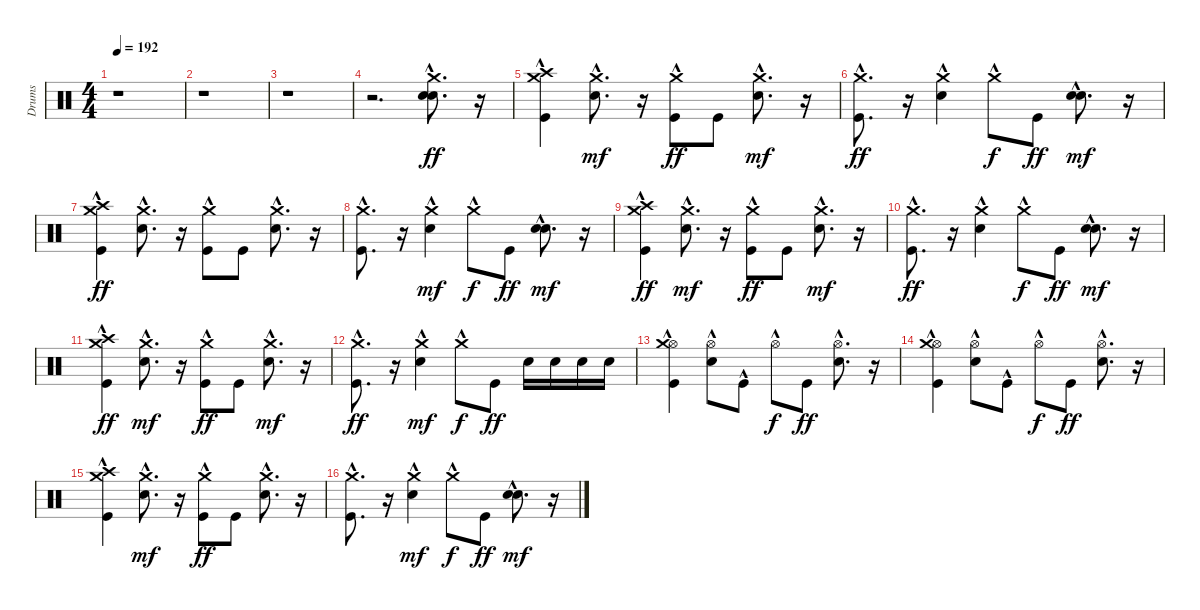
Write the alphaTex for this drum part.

\track ("Drums" "Drums") {instrument percussion}
\staff {score}
\articulation defaults
\ts (4 4)
\tempo 192
\clef neutral
\ks c
r.1{dy ff} |
r.1 |
r.1 |
r.2{d} ("Crash medium (hit)"{hac} "Snare (hit) 2"{hac} "Electric Snare (hit)"{hac}).8{d} r.16 |
("Crash medium (hit)"{hac} "Kick (hit)"{hac} "Crash high (hit)"{hac}).4 ("Electric Snare (hit)"{hac} "Crash medium (hit)"{hac}).8{d dy mf} r.16 ("Kick (hit)" "Crash medium (hit)"{hac}).8{dy ff} "Kick (hit)".8 ("Electric Snare (hit)"{hac} "Crash medium (hit)"{hac}).8{d dy mf} r.16 |
("Crash medium (hit)"{hac} "Kick (hit)"{hac}).8{d dy ff} r.16 ("Crash medium (hit)"{hac} "Electric Snare (hit)").4 "Crash medium (hit)"{hac}.8{dy f} "Kick (hit)".8{dy ff} ("Electric Snare (hit)"{hac} "Snare (hit) 2"{hac}).8{d dy mf} r.16 |
("Crash medium (hit)"{hac} "Kick (hit)"{hac} "Crash high (hit)"{hac}).4{dy ff} ("Crash medium (hit)"{hac} "Electric Snare (hit)"{hac}).8{d} r.16 ("Crash medium (hit)"{hac} "Kick (hit)").8 "Kick (hit)".8 ("Crash medium (hit)"{hac} "Electric Snare (hit)"{hac}).8{d} r.16 |
("Kick (hit)"{hac} "Crash medium (hit)"{hac}).8{d} r.16 ("Electric Snare (hit)" "Crash medium (hit)"{hac}).4{dy mf} "Crash medium (hit)"{hac}.8{dy f} "Kick (hit)".8{dy ff} ("Electric Snare (hit)"{hac} "Snare (hit) 2"{hac}).8{d dy mf} r.16 |
("Crash medium (hit)"{hac} "Crash high (hit)"{hac} "Kick (hit)"{hac}).4{dy ff} ("Electric Snare (hit)"{hac} "Crash medium (hit)"{hac}).8{d dy mf} r.16 ("Kick (hit)" "Crash medium (hit)"{hac}).8{dy ff} "Kick (hit)".8 ("Electric Snare (hit)"{hac} "Crash medium (hit)"{hac}).8{d dy mf} r.16 |
("Crash medium (hit)"{hac} "Kick (hit)"{hac}).8{d dy ff} r.16 ("Crash medium (hit)"{hac} "Electric Snare (hit)").4 "Crash medium (hit)"{hac}.8{dy f} "Kick (hit)".8{dy ff} ("Electric Snare (hit)"{hac} "Snare (hit) 2"{hac}).8{d dy mf} r.16 |
("Crash medium (hit)"{hac} "Crash high (hit)"{hac} "Kick (hit)"{hac}).4{dy ff} ("Electric Snare (hit)"{hac} "Crash medium (hit)"{hac}).8{d dy mf} r.16 ("Kick (hit)" "Crash medium (hit)"{hac}).8{dy ff} "Kick (hit)".8 ("Electric Snare (hit)"{hac} "Crash medium (hit)"{hac}).8{d dy mf} r.16 |
("Kick (hit)"{hac} "Crash medium (hit)"{hac}).8{d dy ff} r.16 ("Electric Snare (hit)" "Crash medium (hit)"{hac}).4{dy mf} "Crash medium (hit)"{hac}.8{dy f} "Kick (hit)".8{dy ff} "Electric Snare (hit)".16 "Electric Snare (hit)".16 "Electric Snare (hit)".16 "Electric Snare (hit)".16 |
("Kick (hit)"{hac} "Hi-Hat (open)"{hac} "Crash medium (hit)"{hac}).4 ("Hi-Hat (open)"{hac} "Electric Snare (hit)").8 "Kick (hit)"{hac}.8 "Hi-Hat (open)"{hac}.8{dy f} "Kick (hit)".8{dy ff} ("Hi-Hat (open)"{hac} "Electric Snare (hit)"{hac}).8{d} r.16 |
("Kick (hit)"{hac} "Hi-Hat (open)"{hac} "Crash medium (hit)"{hac}).4 ("Hi-Hat (open)"{hac} "Electric Snare (hit)").8 "Kick (hit)"{hac}.8 "Hi-Hat (open)"{hac}.8{dy f} "Kick (hit)".8{dy ff} ("Electric Snare (hit)"{hac} "Hi-Hat (open)"{hac}).8{d} r.16 |
("Kick (hit)"{hac} "Crash high (hit)"{hac} "Crash medium (hit)"{hac}).4 ("Electric Snare (hit)"{hac} "Crash medium (hit)"{hac}).8{d dy mf} r.16 ("Kick (hit)" "Crash medium (hit)"{hac}).8{dy ff} "Kick (hit)".8 ("Crash medium (hit)"{hac} "Electric Snare (hit)"{hac}).8{d} r.16 |
("Crash medium (hit)"{hac} "Kick (hit)"{hac}).8{d} r.16 ("Electric Snare (hit)" "Crash medium (hit)"{hac}).4{dy mf} "Crash medium (hit)"{hac}.8{dy f} "Kick (hit)".8{dy ff} ("Electric Snare (hit)"{hac} "Snare (hit) 2"{hac}).8{d dy mf} r.16
